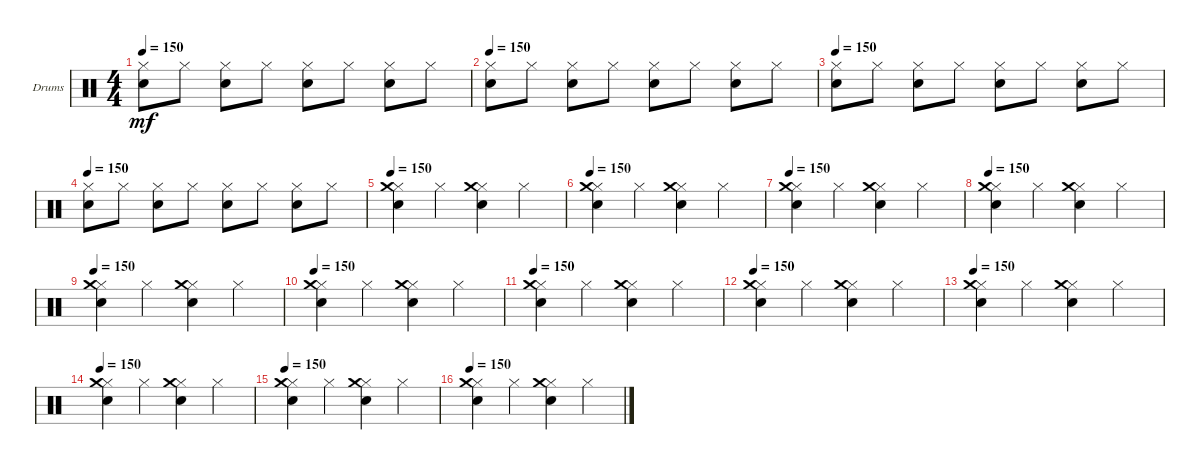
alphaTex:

\bracketExtendMode groupsimilarinstruments
\firstSystemTrackNameOrientation horizontal
\otherSystemsTrackNameOrientation horizontal
\track ("Drums" "Drums") {instrument percussion}
\staff {score}
\articulation defaults
\ts (4 4)
\tempo 150
\clef neutral
\ks c
("Snare (hit) 2" "Hi-Hat (closed)").8{dy mf} "Hi-Hat (closed)".8 ("Snare (hit) 2" "Hi-Hat (closed)").8 "Hi-Hat (closed)".8 ("Snare (hit) 2" "Hi-Hat (closed)").8 "Hi-Hat (closed)".8 ("Snare (hit) 2" "Hi-Hat (closed)").8 "Hi-Hat (closed)".8 |
\tempo 150
("Snare (hit) 2" "Hi-Hat (closed)").8 "Hi-Hat (closed)".8 ("Snare (hit) 2" "Hi-Hat (closed)").8 "Hi-Hat (closed)".8 ("Snare (hit) 2" "Hi-Hat (closed)").8 "Hi-Hat (closed)".8 ("Snare (hit) 2" "Hi-Hat (closed)").8 "Hi-Hat (closed)".8 |
\tempo 150
("Snare (hit) 2" "Hi-Hat (closed)").8 "Hi-Hat (closed)".8 ("Snare (hit) 2" "Hi-Hat (closed)").8 "Hi-Hat (closed)".8 ("Snare (hit) 2" "Hi-Hat (closed)").8 "Hi-Hat (closed)".8 ("Snare (hit) 2" "Hi-Hat (closed)").8 "Hi-Hat (closed)".8 |
\tempo 150
("Snare (hit) 2" "Hi-Hat (closed)").8 "Hi-Hat (closed)".8 ("Snare (hit) 2" "Hi-Hat (closed)").8 "Hi-Hat (closed)".8 ("Snare (hit) 2" "Hi-Hat (closed)").8 "Hi-Hat (closed)".8 ("Snare (hit) 2" "Hi-Hat (closed)").8 "Hi-Hat (closed)".8 |
\tempo 150
("Snare (hit) 2" "Hi-Hat (closed)" "Crash medium (hit)").4 "Hi-Hat (closed)".4 ("Snare (hit) 2" "Hi-Hat (closed)" "Crash medium (hit)").4 "Hi-Hat (closed)".4 |
\tempo 150
("Snare (hit) 2" "Hi-Hat (closed)" "Crash medium (hit)").4 "Hi-Hat (closed)".4 ("Snare (hit) 2" "Hi-Hat (closed)" "Crash medium (hit)").4 "Hi-Hat (closed)".4 |
\tempo 150
("Snare (hit) 2" "Hi-Hat (closed)" "Crash medium (hit)").4 "Hi-Hat (closed)".4 ("Snare (hit) 2" "Hi-Hat (closed)" "Crash medium (hit)").4 "Hi-Hat (closed)".4 |
\tempo 150
("Snare (hit) 2" "Hi-Hat (closed)" "Crash medium (hit)").4 "Hi-Hat (closed)".4 ("Snare (hit) 2" "Hi-Hat (closed)" "Crash medium (hit)").4 "Hi-Hat (closed)".4 |
\tempo 150
("Snare (hit) 2" "Hi-Hat (closed)" "Crash medium (hit)").4 "Hi-Hat (closed)".4 ("Snare (hit) 2" "Hi-Hat (closed)" "Crash medium (hit)").4 "Hi-Hat (closed)".4 |
\tempo 150
("Snare (hit) 2" "Hi-Hat (closed)" "Crash medium (hit)").4 "Hi-Hat (closed)".4 ("Snare (hit) 2" "Hi-Hat (closed)" "Crash medium (hit)").4 "Hi-Hat (closed)".4 |
\tempo 150
("Snare (hit) 2" "Hi-Hat (closed)" "Crash medium (hit)").4 "Hi-Hat (closed)".4 ("Snare (hit) 2" "Hi-Hat (closed)" "Crash medium (hit)").4 "Hi-Hat (closed)".4 |
\tempo 150
("Snare (hit) 2" "Hi-Hat (closed)" "Crash medium (hit)").4 "Hi-Hat (closed)".4 ("Snare (hit) 2" "Hi-Hat (closed)" "Crash medium (hit)").4 "Hi-Hat (closed)".4 |
\tempo 150
("Snare (hit) 2" "Hi-Hat (closed)" "Crash medium (hit)").4 "Hi-Hat (closed)".4 ("Snare (hit) 2" "Hi-Hat (closed)" "Crash medium (hit)").4 "Hi-Hat (closed)".4 |
\tempo 150
("Snare (hit) 2" "Hi-Hat (closed)" "Crash medium (hit)").4 "Hi-Hat (closed)".4 ("Snare (hit) 2" "Hi-Hat (closed)" "Crash medium (hit)").4 "Hi-Hat (closed)".4 |
\tempo 150
("Snare (hit) 2" "Hi-Hat (closed)" "Crash medium (hit)").4 "Hi-Hat (closed)".4 ("Snare (hit) 2" "Hi-Hat (closed)" "Crash medium (hit)").4 "Hi-Hat (closed)".4 |
\tempo 150
("Snare (hit) 2" "Hi-Hat (closed)" "Crash medium (hit)").4 "Hi-Hat (closed)".4 ("Snare (hit) 2" "Hi-Hat (closed)" "Crash medium (hit)").4 "Hi-Hat (closed)".4
